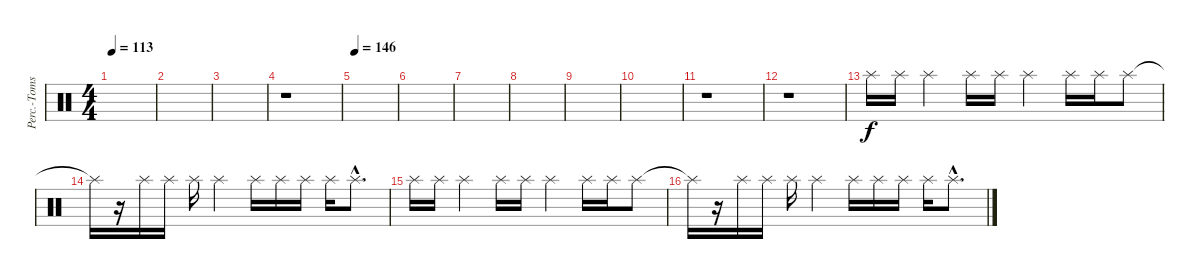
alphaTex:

\track ("Perc.-Toms/Cym.2" "Perc.-Toms") {instrument percussion}
\staff {score}
\articulation defaults
\ts (4 4)
\tempo 113
\clef neutral
\ks c
|
|
|
r.1 |
\tempo 146
|
|
|
|
|
|
r.1 |
r.1 |
\section ("" "")
"Splash (hit)".16 "Splash (hit)".16 "Splash (hit)".4 "Splash (hit)".16 "Splash (hit)".16 "Splash (hit)".4 "Splash (hit)".16 "Splash (hit)".16 "Splash (hit)".8 |
"Splash (hit)"{t}.16 r.16 "Splash (hit)".16 "Splash (hit)".16 "Splash (hit)".16 "Splash (hit)".4 "Splash (hit)".16 "Splash (hit)".16 "Splash (hit)".16 "Splash (hit)".16 "Splash (hit)"{hac}.8{d} |
"Splash (hit)".16 "Splash (hit)".16 "Splash (hit)".4 "Splash (hit)".16 "Splash (hit)".16 "Splash (hit)".4 "Splash (hit)".16 "Splash (hit)".16 "Splash (hit)".8 |
"Splash (hit)"{t}.16 r.16 "Splash (hit)".16 "Splash (hit)".16 "Splash (hit)".16 "Splash (hit)".4 "Splash (hit)".16 "Splash (hit)".16 "Splash (hit)".16 "Splash (hit)".16 "Splash (hit)"{hac}.8{d}
